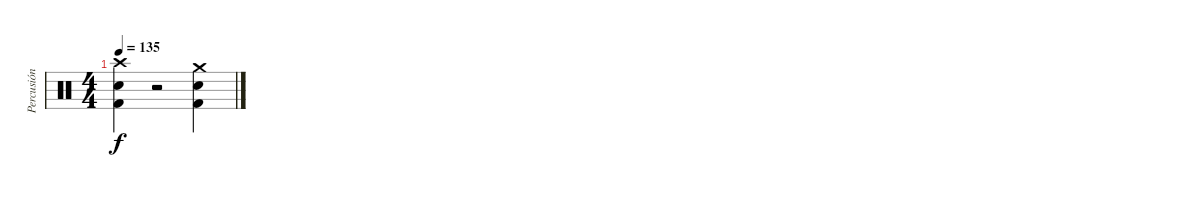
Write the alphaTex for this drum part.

\track ("Percusión" "Percusión") {instrument percussion}
\staff {score}
\articulation defaults
\ts (4 4)
\tempo 135
\clef neutral
\ks c
("Crash high (hit)" "Snare (hit) 2" "Kick (hit) 2").4{dy f} r.2 ("Crash medium (hit)" "Snare (hit) 2" "Kick (hit) 2").4
